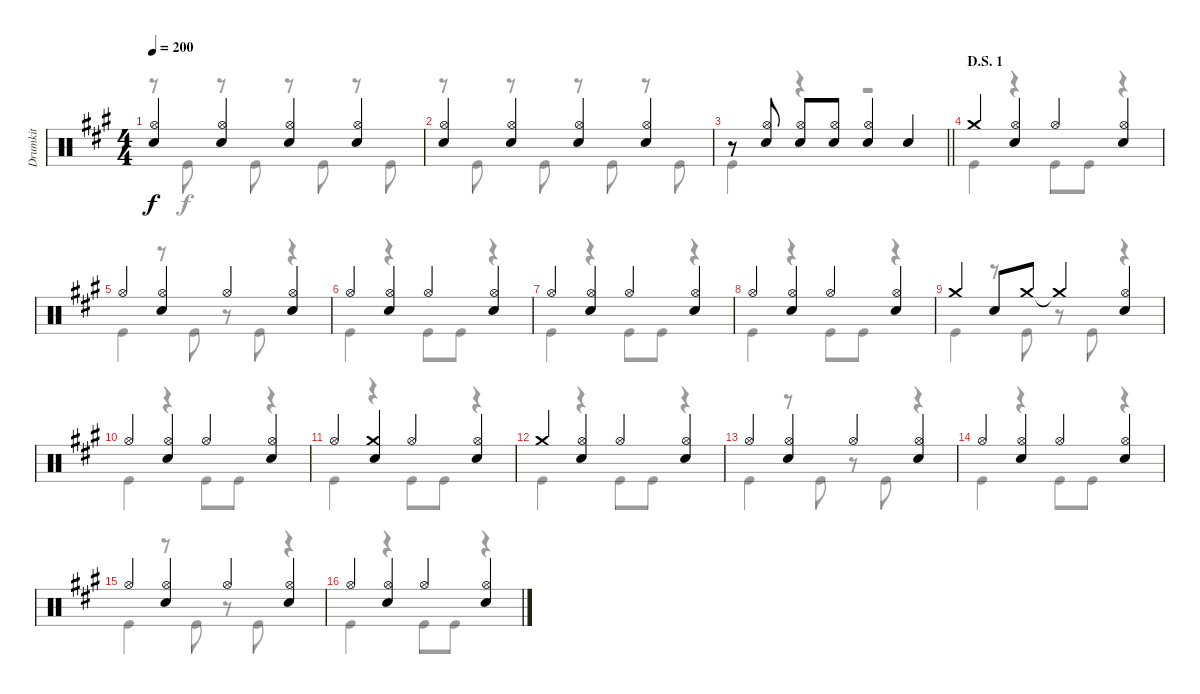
\track ("Drumkit" "Drumkit") {instrument percussion}
\staff {score}
\articulation defaults
\voice
\ts (4 4)
\tempo 200
\clef neutral
\ks a
("Snare (hit) 2" "Hi-Hat (open)").4{dy f} ("Snare (hit) 2" "Hi-Hat (open)").4 ("Snare (hit) 2" "Hi-Hat (open)").4 ("Snare (hit) 2" "Hi-Hat (open)").4 |
("Snare (hit) 2" "Hi-Hat (open)").4 ("Snare (hit) 2" "Hi-Hat (open)").4 ("Snare (hit) 2" "Hi-Hat (open)").4 ("Snare (hit) 2" "Hi-Hat (open)").4 |
\barLineRight lightlight
r.8 ("Snare (hit) 2" "Hi-Hat (open)").8 ("Snare (hit) 2" "Hi-Hat (open)").8 ("Snare (hit) 2" "Hi-Hat (open)").8 ("Snare (hit) 2" "Hi-Hat (open)").4 "Snare (hit) 2".4 |
\section ("" "D.S. 1")
"Crash medium (hit)".4 ("Hi-Hat (open)" "Snare (hit) 2").4 "Hi-Hat (open)".4 ("Hi-Hat (open)" "Snare (hit) 2").4 |
"Hi-Hat (open)".4 ("Hi-Hat (open)" "Snare (hit) 2").4 "Hi-Hat (open)".4 ("Hi-Hat (open)" "Snare (hit) 2").4 |
"Hi-Hat (open)".4 ("Hi-Hat (open)" "Snare (hit) 2").4 "Hi-Hat (open)".4 ("Hi-Hat (open)" "Snare (hit) 2").4 |
"Hi-Hat (open)".4 ("Hi-Hat (open)" "Snare (hit) 2").4 "Hi-Hat (open)".4 ("Hi-Hat (open)" "Snare (hit) 2").4 |
"Hi-Hat (open)".4 ("Hi-Hat (open)" "Snare (hit) 2").4 "Hi-Hat (open)".4 ("Hi-Hat (open)" "Snare (hit) 2").4 |
"Crash medium (hit)".4 "Snare (hit) 2".8 "Crash medium (hit)".8 "Crash medium (hit)"{t}.4 ("Hi-Hat (open)" "Snare (hit) 2").4 |
"Hi-Hat (open)".4 ("Hi-Hat (open)" "Snare (hit) 2").4 "Hi-Hat (open)".4 ("Hi-Hat (open)" "Snare (hit) 2").4 |
"Hi-Hat (open)".4 ("Snare (hit) 2" "Crash medium (hit)").4 "Hi-Hat (open)".4 ("Hi-Hat (open)" "Snare (hit) 2").4 |
"Crash medium (hit)".4 ("Hi-Hat (open)" "Snare (hit) 2").4 "Hi-Hat (open)".4 ("Hi-Hat (open)" "Snare (hit) 2").4 |
"Hi-Hat (open)".4 ("Hi-Hat (open)" "Snare (hit) 2").4 "Hi-Hat (open)".4 ("Hi-Hat (open)" "Snare (hit) 2").4 |
"Hi-Hat (open)".4 ("Hi-Hat (open)" "Snare (hit) 2").4 "Hi-Hat (open)".4 ("Hi-Hat (open)" "Snare (hit) 2").4 |
"Hi-Hat (open)".4 ("Hi-Hat (open)" "Snare (hit) 2").4 "Hi-Hat (open)".4 ("Hi-Hat (open)" "Snare (hit) 2").4 |
"Hi-Hat (open)".4 ("Hi-Hat (open)" "Snare (hit) 2").4 "Hi-Hat (open)".4 ("Hi-Hat (open)" "Snare (hit) 2").4
\voice
\clef neutral
\ottava regular
\simile none
\ks a
r.8{dy f} "Kick (hit)".8 r.8 "Kick (hit)".8 r.8 "Kick (hit)".8 r.8 "Kick (hit)".8 |
r.8 "Kick (hit)".8 r.8 "Kick (hit)".8 r.8 "Kick (hit)".8 r.8 "Kick (hit)".8 |
\barLineRight lightlight "Kick (hit)".4
r.4 r.2 |
"Kick (hit)".4 r.4 "Kick (hit)".8 "Kick (hit)".8 r.4 |
"Kick (hit)".4 r.8 "Kick (hit)".8 r.8 "Kick (hit)".8 r.4 |
"Kick (hit)".4 r.4 "Kick (hit)".8 "Kick (hit)".8 r.4 |
"Kick (hit)".4 r.4 "Kick (hit)".8 "Kick (hit)".8 r.4 |
"Kick (hit)".4 r.4 "Kick (hit)".8 "Kick (hit)".8 r.4 |
"Kick (hit)".4 r.8 "Kick (hit)".8 r.8 "Kick (hit)".8 r.4 |
"Kick (hit)".4 r.4 "Kick (hit)".8 "Kick (hit)".8 r.4 |
"Kick (hit)".4 r.4 "Kick (hit)".8 "Kick (hit)".8 r.4 |
"Kick (hit)".4 r.4 "Kick (hit)".8 "Kick (hit)".8 r.4 |
"Kick (hit)".4 r.8 "Kick (hit)".8 r.8 "Kick (hit)".8 r.4 |
"Kick (hit)".4 r.4 "Kick (hit)".8 "Kick (hit)".8 r.4 |
"Kick (hit)".4 r.8 "Kick (hit)".8 r.8 "Kick (hit)".8 r.4 |
"Kick (hit)".4 r.4 "Kick (hit)".8 "Kick (hit)".8 r.4
